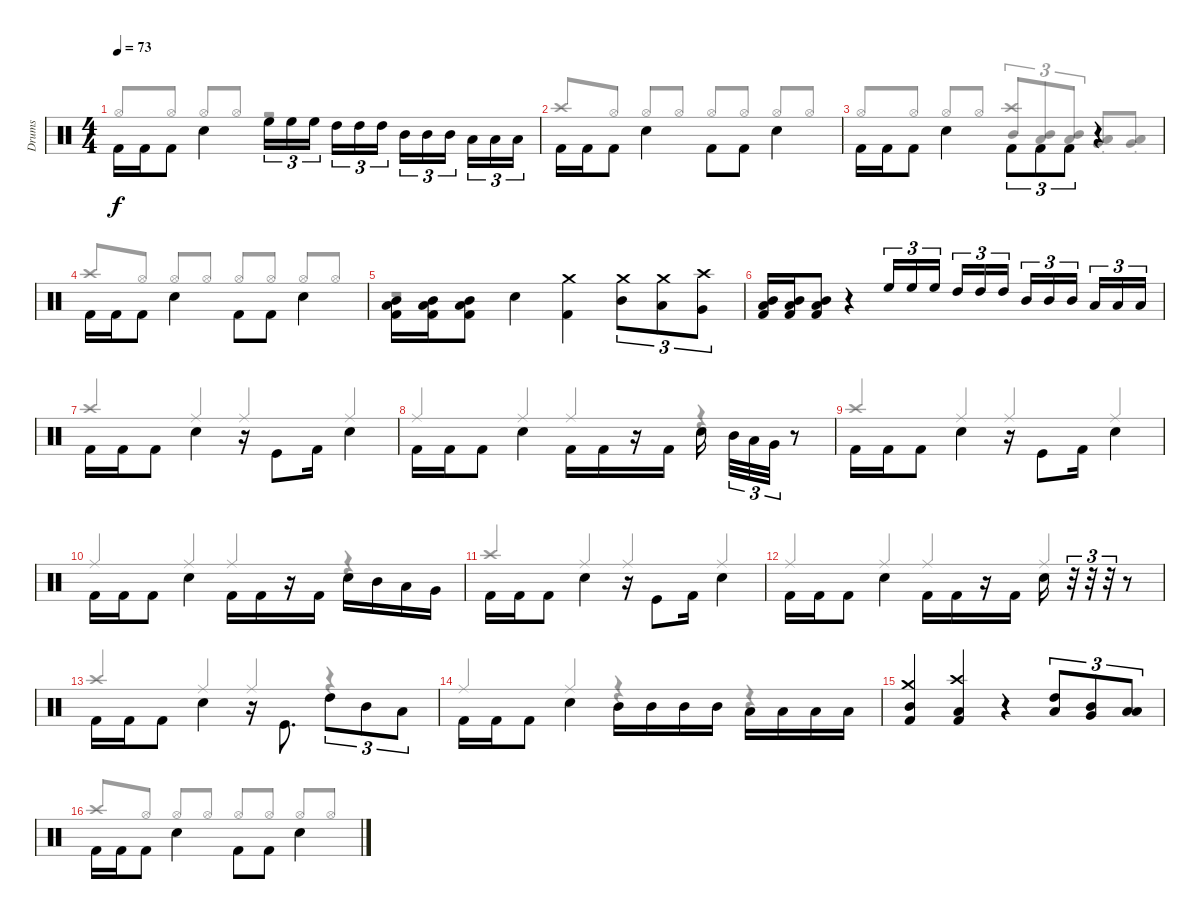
\track ("Drums" "Drums") {instrument percussion}
\staff {score}
\articulation defaults
\voice
\ts (4 4)
\tempo 73
\clef neutral
\ks c "Kick (hit) 2".16{dy f beam Down} "Kick (hit) 2".16{beam Down} "Kick (hit) 2".8{beam Down} "Snare (hit) 2".4{beam Down} "High Floor Tom (hit)".16{tu (3 2) beam Down} "High Floor Tom (hit)".16{tu (3 2) beam Down} "High Floor Tom (hit)".16{tu (3 2) beam Down beam splitsecondary} "High Tom (hit)".16{tu (3 2) beam Down} "High Tom (hit)".16{tu (3 2) beam Down} "High Tom (hit)".16{tu (3 2) beam Down} "Mid Tom (hit)".16{tu (3 2) beam Down} "Mid Tom (hit)".16{tu (3 2) beam Down} "Mid Tom (hit)".16{tu (3 2) beam Down beam splitsecondary} "Low Tom (hit)".16{tu (3 2) beam Down} "Low Tom (hit)".16{tu (3 2) beam Down} "Low Tom (hit)".16{tu (3 2) beam Down}
|
"Kick (hit) 2".16{beam Down} "Kick (hit) 2".16{beam Down} "Kick (hit) 2".8{beam Down} "Snare (hit) 2".4{beam Down} "Kick (hit) 2".8{beam Down} "Kick (hit) 2".8{beam Down} "Snare (hit) 2".4{beam Down} |
"Kick (hit) 2".16{beam Down} "Kick (hit) 2".16{beam Down} "Kick (hit) 2".8{beam Down} "Snare (hit) 2".4{beam Down} "Kick (hit) 2".8{tu (3 2) beam Down} "Kick (hit) 2".8{tu (3 2) beam Down} "Kick (hit) 2".8{tu (3 2) beam Down} r.4 |
"Kick (hit) 2".16{beam Down} "Kick (hit) 2".16{beam Down} "Kick (hit) 2".8{beam Down} "Snare (hit) 2".4{beam Down} "Kick (hit) 2".8{beam Down} "Kick (hit) 2".8{beam Down} "Snare (hit) 2".4{beam Down} |
("Kick (hit) 2" "Mid Tom (hit)" "Low Tom (hit)").16{beam Down} ("Kick (hit) 2" "Mid Tom (hit)" "Low Tom (hit)").16{beam Down} ("Kick (hit) 2" "Mid Tom (hit)" "Low Tom (hit)").8{beam Down} "Snare (hit) 2".4{beam Down} ("Crash medium (hit)" "Kick (hit) 2").4{beam Down} ("Mid Tom (hit)" "Crash medium (hit)").8{tu (3 2) beam Down} ("Low Tom (hit)" "Crash medium (hit)").8{tu (3 2) beam Down} ("Very Low Tom (hit)" "Crash high (hit)").8{tu (3 2) beam Down} |
("Kick (hit) 2" "Mid Tom (hit)" "Low Tom (hit)").16{beam Up} ("Kick (hit) 2" "Mid Tom (hit)" "Low Tom (hit)").16{beam Up} ("Kick (hit) 2" "Mid Tom (hit)" "Low Tom (hit)").8{beam Up} r.4 "High Floor Tom (hit)".16{tu (3 2) beam Up} "High Floor Tom (hit)".16{tu (3 2) beam Up} "High Floor Tom (hit)".16{tu (3 2) beam Up beam splitsecondary} "High Tom (hit)".16{tu (3 2) beam Up} "High Tom (hit)".16{tu (3 2) beam Up} "High Tom (hit)".16{tu (3 2) beam Up} "Mid Tom (hit)".16{tu (3 2) beam Up} "Mid Tom (hit)".16{tu (3 2) beam Up} "Mid Tom (hit)".16{tu (3 2) beam Up beam splitsecondary} "Low Tom (hit)".16{tu (3 2) beam Up} "Low Tom (hit)".16{tu (3 2) beam Up} "Low Tom (hit)".16{tu (3 2) beam Up} |
"Kick (hit) 2".16{beam Down} "Kick (hit) 2".16{beam Down} "Kick (hit) 2".8{beam Down} "Snare (hit) 2".4{beam Down} r.16 "Kick (hit)".8{beam Down} "Kick (hit) 2".16{beam Down} "Snare (hit) 2".4{beam Down} |
"Kick (hit) 2".16{beam Down} "Kick (hit) 2".16{beam Down} "Kick (hit) 2".8{beam Down} "Snare (hit) 2".4{beam Down} "Kick (hit) 2".16{beam Down} "Kick (hit) 2".16{beam Down} r.16 "Kick (hit) 2".16{beam Down} "Snare (hit) 2".16{beam Down beam splitsecondary} "Mid Tom (hit)".32{tu (3 2) beam Down} "Low Tom (hit)".32{tu (3 2) beam Down} "Very Low Tom (hit)".32{tu (3 2) beam Down} r.8 |
"Kick (hit) 2".16{beam Down} "Kick (hit) 2".16{beam Down} "Kick (hit) 2".8{beam Down} "Snare (hit) 2".4{beam Down} r.16 "Kick (hit)".8{beam Down} "Kick (hit) 2".16{beam Down} "Snare (hit) 2".4{beam Down} |
"Kick (hit) 2".16{beam Down} "Kick (hit) 2".16{beam Down} "Kick (hit) 2".8{beam Down} "Snare (hit) 2".4{beam Down} "Kick (hit) 2".16{beam Down} "Kick (hit) 2".16{beam Down} r.16 "Kick (hit) 2".16{beam Down} "Snare (hit) 2".16{beam Down} "Mid Tom (hit)".16{beam Down} "Low Tom (hit)".16{beam Down} "Very Low Tom (hit)".16{beam Down} |
"Kick (hit) 2".16{beam Down} "Kick (hit) 2".16{beam Down} "Kick (hit) 2".8{beam Down} "Snare (hit) 2".4{beam Down} r.16 "Kick (hit)".8{beam Down} "Kick (hit) 2".16{beam Down} "Snare (hit) 2".4{beam Down} |
"Kick (hit) 2".16{beam Down} "Kick (hit) 2".16{beam Down} "Kick (hit) 2".8{beam Down} "Snare (hit) 2".4{beam Down} "Kick (hit) 2".16{beam Down} "Kick (hit) 2".16{beam Down} r.16 "Kick (hit) 2".16{beam Down} "Snare (hit) 2".16{beam Down} r.32{tu (3 2)} r.32{tu (3 2)} r.32{tu (3 2)} r.8 |
"Kick (hit) 2".16{beam Down} "Kick (hit) 2".16{beam Down} "Kick (hit) 2".8{beam Down} "Snare (hit) 2".4{beam Down} r.16 "Kick (hit)".8{d beam Down} "High Tom (hit)".8{tu (3 2) beam Down} "Mid Tom (hit)".8{tu (3 2) beam Down} "Low Tom (hit)".8{tu (3 2) beam Down} |
"Kick (hit) 2".16{beam Down} "Kick (hit) 2".16{beam Down} "Kick (hit) 2".8{beam Down} "Snare (hit) 2".4{beam Down} "Mid Tom (hit)".16{beam Down} "Mid Tom (hit)".16{beam Down} "Mid Tom (hit)".16{beam Down} "Mid Tom (hit)".16{beam Down} "Low Tom (hit)".16{beam Down} "Low Tom (hit)".16{beam Down} "Low Tom (hit)".16{beam Down} "Low Tom (hit)".16{beam Down} |
("Kick (hit) 2" "Crash medium (hit)" "Mid Tom (hit)").4{beam Up} ("Kick (hit) 2" "Low Tom (hit)" "Crash high (hit)").4{beam Up} r.4 ("High Tom (hit)" "Low Tom (hit)").8{tu (3 2) beam Up} ("Mid Tom (hit)" "Very Low Tom (hit)").8{tu (3 2) beam Up} ("Low Tom (hit)" "Low Floor Tom (hit)").8{tu (3 2) beam Up} |
"Kick (hit) 2".16{beam Down} "Kick (hit) 2".16{beam Down} "Kick (hit) 2".8{beam Down} "Snare (hit) 2".4{beam Down} "Kick (hit) 2".8{beam Down} "Kick (hit) 2".8{beam Down} "Snare (hit) 2".4{beam Down}
\voice
\clef neutral
\ottava regular
\simile none
\ks c "Hi-Hat (open)".8{dy f beam Up} "Hi-Hat (open)".8{beam Up} "Hi-Hat (open)".8{beam Up} "Hi-Hat (open)".8{beam Up}
r.2 |
"Crash high (hit)".8{beam Up} "Hi-Hat (open)".8{beam Up} "Hi-Hat (open)".8{beam Up} "Hi-Hat (open)".8{beam Up} "Hi-Hat (open)".8{beam Up} "Hi-Hat (open)".8{beam Up} "Hi-Hat (open)".8{beam Up} "Hi-Hat (open)".8{beam Up} |
"Hi-Hat (open)".8{beam Up} "Hi-Hat (open)".8{beam Up} "Hi-Hat (open)".8{beam Up} "Hi-Hat (open)".8{beam Up} ("Crash high (hit)" "Mid Tom (hit)").8{tu (3 2) beam Up} ("Mid Tom (hit)" "Low Tom (hit)").8{tu (3 2) beam Up} ("Mid Tom (hit)" "Low Tom (hit)").8{tu (3 2) beam Up} ("Very Low Tom (hit)"{st} "Low Tom (hit)"{st}).8{beam Up} ("Low Tom (hit)"{st} "Very Low Tom (hit)"{st}).8{beam Up} |
"Crash high (hit)".8{beam Up} "Hi-Hat (open)".8{beam Up} "Hi-Hat (open)".8{beam Up} "Hi-Hat (open)".8{beam Up} "Hi-Hat (open)".8{beam Up} "Hi-Hat (open)".8{beam Up} "Hi-Hat (open)".8{beam Up} "Hi-Hat (open)".8{beam Up} |
r.1 |
|
"Crash high (hit)".4{beam Up} "Ride (middle)".4{beam Up} "Ride (middle)".4{beam Up} "Ride (middle)".4{beam Up} |
"Ride (middle)".4{beam Up} "Ride (middle)".4{beam Up} "Ride (middle)".4{beam Up} r.4 |
"Crash high (hit)".4{beam Up} "Ride (middle)".4{beam Up} "Ride (middle)".4{beam Up} "Ride (middle)".4{beam Up} |
"Ride (middle)".4{beam Up} "Ride (middle)".4{beam Up} "Ride (middle)".4{beam Up} r.4 |
"Crash high (hit)".4{beam Up} "Ride (middle)".4{beam Up} "Ride (middle)".4{beam Up} "Ride (middle)".4{beam Up} |
"Ride (middle)".4{beam Up} "Ride (middle)".4{beam Up} "Ride (middle)".4{beam Up} "Ride (middle)".4{beam Up} |
"Crash high (hit)".4{beam Up} "Ride (middle)".4{beam Up} "Ride (middle)".4{beam Up} r.4 |
"Ride (middle)".4{beam Up} "Ride (middle)".4{beam Up} r.4 r.4 |
|
"Crash high (hit)".8{beam Up} "Hi-Hat (open)".8{beam Up} "Hi-Hat (open)".8{beam Up} "Hi-Hat (open)".8{beam Up} "Hi-Hat (open)".8{beam Up} "Hi-Hat (open)".8{beam Up} "Hi-Hat (open)".8{beam Up} "Hi-Hat (open)".8{beam Up}
